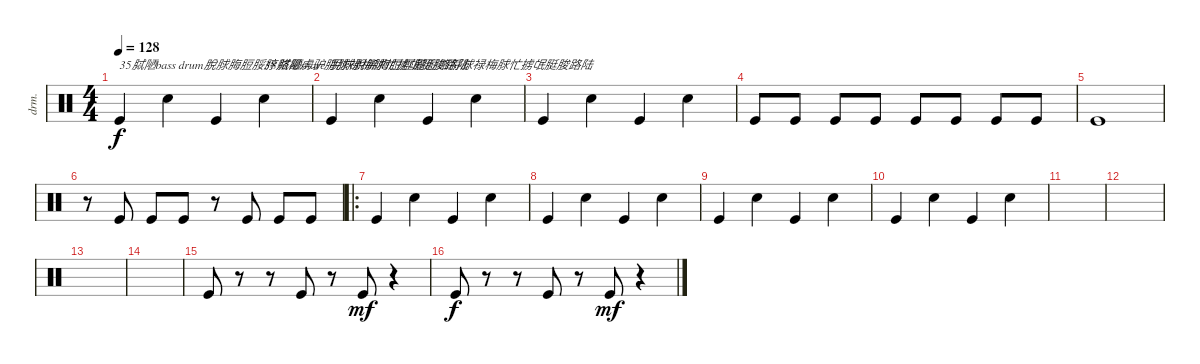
\defaultSystemsLayout 4
\bracketExtendMode groupsimilarinstruments
\otherSystemsTrackNameOrientation horizontal
\track ("Drumkit" "drm.") {instrument percussion}
\staff {score}
\articulation defaults
\ts (4 4)
\tempo 128
\clef neutral
\ks c "Kick (hit)".4{txt "35脦陋bass drum脫脙脢脰脮脝赂霉虏驴脟脙禄梅脙忙掳氓脡脧路陆" dy f} "Snare (hit) 2".4 "Kick (hit)".4 "Snare (hit) 2".4{txt "38脦陋snare 脫脙脫脪脢脰脛麓脰赂脟脙禄梅脙忙掳氓脡脧路陆"}
|
"Kick (hit)".4 "Snare (hit) 2".4 "Kick (hit)".4 "Snare (hit) 2".4 |
"Kick (hit)".4 "Snare (hit) 2".4 "Kick (hit)".4 "Snare (hit) 2".4 |
"Kick (hit)".8 "Kick (hit)".8 "Kick (hit)".8 "Kick (hit)".8 "Kick (hit)".8 "Kick (hit)".8 "Kick (hit)".8 "Kick (hit)".8 |
"Kick (hit)".1 |
r.8 "Kick (hit)".8 "Kick (hit)".8 "Kick (hit)".8 r.8 "Kick (hit)".8 "Kick (hit)".8 "Kick (hit)".8 |
\ro "Kick (hit)".4 "Snare (hit) 2".4 "Kick (hit)".4 "Snare (hit) 2".4
|
"Kick (hit)".4 "Snare (hit) 2".4 "Kick (hit)".4 "Snare (hit) 2".4 |
"Kick (hit)".4 "Snare (hit) 2".4 "Kick (hit)".4 "Snare (hit) 2".4 |
"Kick (hit)".4 "Snare (hit) 2".4 "Kick (hit)".4 "Snare (hit) 2".4 |
|
|
|
|
"Kick (hit)".8 r.8 r.8 "Kick (hit)".8 r.8 "Kick (hit)".8{dy mf} r.4 |
"Kick (hit)".8{dy f} r.8 r.8 "Kick (hit)".8 r.8 "Kick (hit)".8{dy mf} r.4
